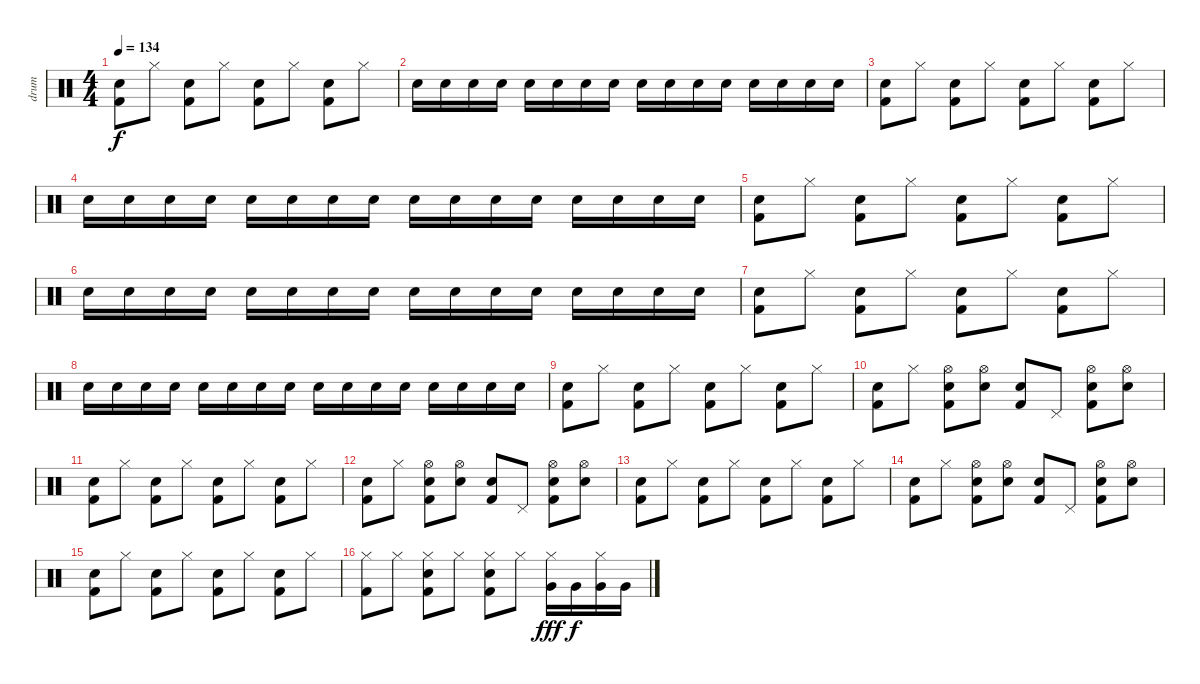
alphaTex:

\track ("drum" "drum") {instrument percussion}
\staff {score}
\articulation defaults
\ts (4 4)
\tempo 134
\clef neutral
\ks c
("Electric Snare (hit)" "Kick (hit) 2").8{dy f} "Hi-Hat (closed)".8 ("Electric Snare (hit)" "Kick (hit) 2").8 "Hi-Hat (closed)".8 ("Electric Snare (hit)" "Kick (hit) 2").8 "Hi-Hat (closed)".8 ("Electric Snare (hit)" "Kick (hit) 2").8 "Hi-Hat (closed)".8 |
"Electric Snare (hit)".16 "Electric Snare (hit)".16 "Electric Snare (hit)".16 "Electric Snare (hit)".16 "Electric Snare (hit)".16 "Electric Snare (hit)".16 "Electric Snare (hit)".16 "Electric Snare (hit)".16 "Electric Snare (hit)".16 "Electric Snare (hit)".16 "Electric Snare (hit)".16 "Electric Snare (hit)".16 "Electric Snare (hit)".16 "Electric Snare (hit)".16 "Electric Snare (hit)".16 "Electric Snare (hit)".16 |
("Electric Snare (hit)" "Kick (hit) 2").8 "Hi-Hat (closed)".8 ("Electric Snare (hit)" "Kick (hit) 2").8 "Hi-Hat (closed)".8 ("Electric Snare (hit)" "Kick (hit) 2").8 "Hi-Hat (closed)".8 ("Electric Snare (hit)" "Kick (hit) 2").8 "Hi-Hat (closed)".8 |
"Electric Snare (hit)".16 "Electric Snare (hit)".16 "Electric Snare (hit)".16 "Electric Snare (hit)".16 "Electric Snare (hit)".16 "Electric Snare (hit)".16 "Electric Snare (hit)".16 "Electric Snare (hit)".16 "Electric Snare (hit)".16 "Electric Snare (hit)".16 "Electric Snare (hit)".16 "Electric Snare (hit)".16 "Electric Snare (hit)".16 "Electric Snare (hit)".16 "Electric Snare (hit)".16 "Electric Snare (hit)".16 |
("Electric Snare (hit)" "Kick (hit) 2").8 "Hi-Hat (closed)".8 ("Electric Snare (hit)" "Kick (hit) 2").8 "Hi-Hat (closed)".8 ("Electric Snare (hit)" "Kick (hit) 2").8 "Hi-Hat (closed)".8 ("Electric Snare (hit)" "Kick (hit) 2").8 "Hi-Hat (closed)".8 |
"Electric Snare (hit)".16 "Electric Snare (hit)".16 "Electric Snare (hit)".16 "Electric Snare (hit)".16 "Electric Snare (hit)".16 "Electric Snare (hit)".16 "Electric Snare (hit)".16 "Electric Snare (hit)".16 "Electric Snare (hit)".16 "Electric Snare (hit)".16 "Electric Snare (hit)".16 "Electric Snare (hit)".16 "Electric Snare (hit)".16 "Electric Snare (hit)".16 "Electric Snare (hit)".16 "Electric Snare (hit)".16 |
("Electric Snare (hit)" "Kick (hit) 2").8 "Hi-Hat (closed)".8 ("Electric Snare (hit)" "Kick (hit) 2").8 "Hi-Hat (closed)".8 ("Electric Snare (hit)" "Kick (hit) 2").8 "Hi-Hat (closed)".8 ("Electric Snare (hit)" "Kick (hit) 2").8 "Hi-Hat (closed)".8 |
"Electric Snare (hit)".16 "Electric Snare (hit)".16 "Electric Snare (hit)".16 "Electric Snare (hit)".16 "Electric Snare (hit)".16 "Electric Snare (hit)".16 "Electric Snare (hit)".16 "Electric Snare (hit)".16 "Electric Snare (hit)".16 "Electric Snare (hit)".16 "Electric Snare (hit)".16 "Electric Snare (hit)".16 "Electric Snare (hit)".16 "Electric Snare (hit)".16 "Electric Snare (hit)".16 "Electric Snare (hit)".16 |
("Electric Snare (hit)" "Kick (hit) 2").8 "Hi-Hat (closed)".8 ("Electric Snare (hit)" "Kick (hit) 2").8 "Hi-Hat (closed)".8 ("Electric Snare (hit)" "Kick (hit) 2").8 "Hi-Hat (closed)".8 ("Electric Snare (hit)" "Kick (hit) 2").8 "Hi-Hat (closed)".8 |
("Electric Snare (hit)" "Kick (hit) 2").8 "Hi-Hat (closed)".8 ("Hi-Hat (open)" "Electric Snare (hit)" "Kick (hit) 2").8 ("Hi-Hat (open)" "Electric Snare (hit)").8 ("Electric Snare (hit)" "Kick (hit) 2").8 "Pedal Hi-Hat (hit)".8 ("Hi-Hat (open)" "Electric Snare (hit)" "Kick (hit) 2").8 ("Hi-Hat (open)" "Electric Snare (hit)").8 |
("Electric Snare (hit)" "Kick (hit) 2").8 "Hi-Hat (closed)".8 ("Electric Snare (hit)" "Kick (hit) 2").8 "Hi-Hat (closed)".8 ("Electric Snare (hit)" "Kick (hit) 2").8 "Hi-Hat (closed)".8 ("Electric Snare (hit)" "Kick (hit) 2").8 "Hi-Hat (closed)".8 |
("Electric Snare (hit)" "Kick (hit) 2").8 "Hi-Hat (closed)".8 ("Hi-Hat (open)" "Electric Snare (hit)" "Kick (hit) 2").8 ("Hi-Hat (open)" "Electric Snare (hit)").8 ("Electric Snare (hit)" "Kick (hit) 2").8 "Pedal Hi-Hat (hit)".8 ("Hi-Hat (open)" "Electric Snare (hit)" "Kick (hit) 2").8 ("Hi-Hat (open)" "Electric Snare (hit)").8 |
("Electric Snare (hit)" "Kick (hit) 2").8 "Hi-Hat (closed)".8 ("Electric Snare (hit)" "Kick (hit) 2").8 "Hi-Hat (closed)".8 ("Electric Snare (hit)" "Kick (hit) 2").8 "Hi-Hat (closed)".8 ("Electric Snare (hit)" "Kick (hit) 2").8 "Hi-Hat (closed)".8 |
("Electric Snare (hit)" "Kick (hit) 2").8 "Hi-Hat (closed)".8 ("Hi-Hat (open)" "Electric Snare (hit)" "Kick (hit) 2").8 ("Hi-Hat (open)" "Electric Snare (hit)").8 ("Electric Snare (hit)" "Kick (hit) 2").8 "Pedal Hi-Hat (hit)".8 ("Hi-Hat (open)" "Electric Snare (hit)" "Kick (hit) 2").8 ("Hi-Hat (open)" "Electric Snare (hit)").8 |
("Electric Snare (hit)" "Kick (hit) 2").8 "Hi-Hat (closed)".8 ("Electric Snare (hit)" "Kick (hit) 2").8 "Hi-Hat (closed)".8 ("Electric Snare (hit)" "Kick (hit) 2").8 "Hi-Hat (closed)".8 ("Electric Snare (hit)" "Kick (hit) 2").8 "Hi-Hat (closed)".8 |
("Hi-Hat (closed)" "Kick (hit) 2").8 "Hi-Hat (closed)".8 ("Hi-Hat (closed)" "Electric Snare (hit)" "Kick (hit) 2").8 "Hi-Hat (closed)".8 ("Hi-Hat (closed)" "Electric Snare (hit)" "Kick (hit) 2").8 "Hi-Hat (closed)".8 ("Hi-Hat (closed)" "Very Low Tom (hit)").16{dy fff} "Very Low Tom (hit)".16{dy f} ("Hi-Hat (closed)" "Very Low Tom (hit)").16 "Very Low Tom (hit)".16
